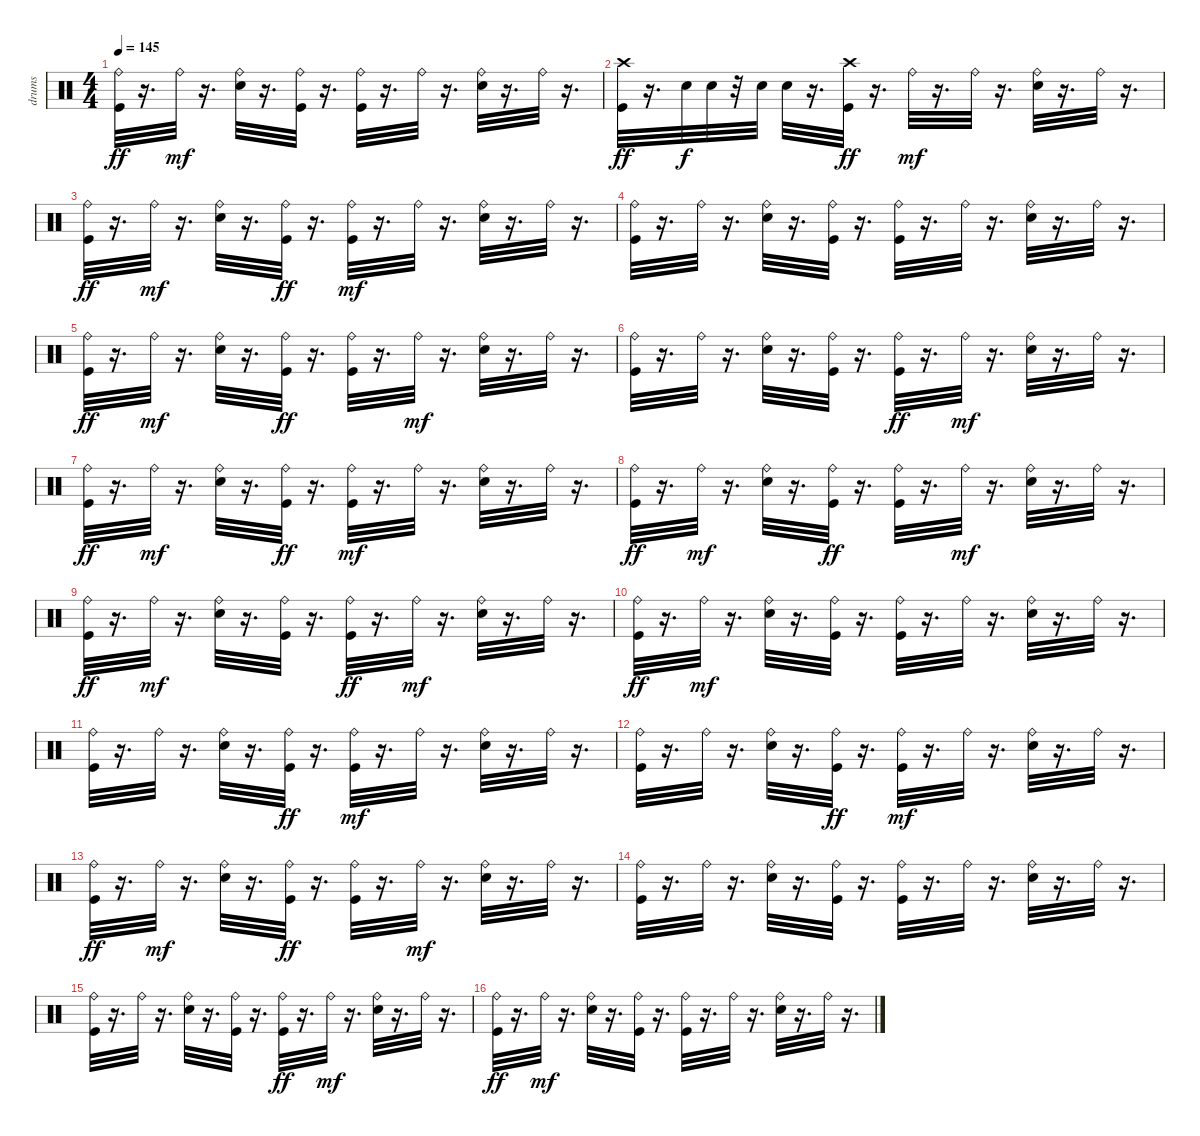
\track ("drums" "drums") {instrument percussion}
\staff {score}
\articulation defaults
\ts (4 4)
\tempo 145
\clef neutral
\ks c
("Ride (bell)" "Kick (hit)").32{dy ff} r.16{d} "Ride (bell)".32{dy mf} r.16{d} ("Snare (hit) 2" "Ride (bell)").32 r.16{d} ("Kick (hit)" "Ride (bell)").32 r.16{d} ("Kick (hit)" "Ride (bell)").32 r.16{d} "Ride (bell)".32 r.16{d} ("Snare (hit) 2" "Ride (bell)").32 r.16{d} "Ride (bell)".32 r.16{d} |
("Crash high (hit)" "Kick (hit)").32{dy ff} r.16{d} "Snare (hit) 2".32{dy f} "Snare (hit) 2".32 r.32 "Snare (hit) 2".32 "Snare (hit) 2".32 r.16{d} ("Crash high (hit)" "Kick (hit)").32{dy ff} r.16{d} "Ride (bell)".32{dy mf} r.16{d} "Ride (bell)".32 r.16{d} ("Ride (bell)" "Snare (hit) 2").32 r.16{d} "Ride (bell)".32 r.16{d} |
("Ride (bell)" "Kick (hit)").32{dy ff} r.16{d} "Ride (bell)".32{dy mf} r.16{d} ("Snare (hit) 2" "Ride (bell)").32 r.16{d} ("Ride (bell)" "Kick (hit)").32{dy ff} r.16{d} ("Kick (hit)" "Ride (bell)").32{dy mf} r.16{d} "Ride (bell)".32 r.16{d} ("Ride (bell)" "Snare (hit) 2").32 r.16{d} "Ride (bell)".32 r.16{d} |
("Kick (hit)" "Ride (bell)").32 r.16{d} "Ride (bell)".32 r.16{d} ("Snare (hit) 2" "Ride (bell)").32 r.16{d} ("Kick (hit)" "Ride (bell)").32 r.16{d} ("Kick (hit)" "Ride (bell)").32 r.16{d} "Ride (bell)".32 r.16{d} ("Ride (bell)" "Snare (hit) 2").32 r.16{d} "Ride (bell)".32 r.16{d} |
("Ride (bell)" "Kick (hit)").32{dy ff} r.16{d} "Ride (bell)".32{dy mf} r.16{d} ("Snare (hit) 2" "Ride (bell)").32 r.16{d} ("Ride (bell)" "Kick (hit)").32{dy ff} r.16{d} ("Ride (bell)" "Kick (hit)").32 r.16{d} "Ride (bell)".32{dy mf} r.16{d} ("Ride (bell)" "Snare (hit) 2").32 r.16{d} "Ride (bell)".32 r.16{d} |
("Kick (hit)" "Ride (bell)").32 r.16{d} "Ride (bell)".32 r.16{d} ("Snare (hit) 2" "Ride (bell)").32 r.16{d} ("Kick (hit)" "Ride (bell)").32 r.16{d} ("Ride (bell)" "Kick (hit)").32{dy ff} r.16{d} "Ride (bell)".32{dy mf} r.16{d} ("Snare (hit) 2" "Ride (bell)").32 r.16{d} "Ride (bell)".32 r.16{d} |
("Ride (bell)" "Kick (hit)").32{dy ff} r.16{d} "Ride (bell)".32{dy mf} r.16{d} ("Snare (hit) 2" "Ride (bell)").32 r.16{d} ("Ride (bell)" "Kick (hit)").32{dy ff} r.16{d} ("Kick (hit)" "Ride (bell)").32{dy mf} r.16{d} "Ride (bell)".32 r.16{d} ("Snare (hit) 2" "Ride (bell)").32 r.16{d} "Ride (bell)".32 r.16{d} |
("Ride (bell)" "Kick (hit)").32{dy ff} r.16{d} "Ride (bell)".32{dy mf} r.16{d} ("Snare (hit) 2" "Ride (bell)").32 r.16{d} ("Ride (bell)" "Kick (hit)").32{dy ff} r.16{d} ("Ride (bell)" "Kick (hit)").32 r.16{d} "Ride (bell)".32{dy mf} r.16{d} ("Ride (bell)" "Snare (hit) 2").32 r.16{d} "Ride (bell)".32 r.16{d} |
("Ride (bell)" "Kick (hit)").32{dy ff} r.16{d} "Ride (bell)".32{dy mf} r.16{d} ("Ride (bell)" "Snare (hit) 2").32 r.16{d} ("Kick (hit)" "Ride (bell)").32 r.16{d} ("Ride (bell)" "Kick (hit)").32{dy ff} r.16{d} "Ride (bell)".32{dy mf} r.16{d} ("Snare (hit) 2" "Ride (bell)").32 r.16{d} "Ride (bell)".32 r.16{d} |
("Ride (bell)" "Kick (hit)").32{dy ff} r.16{d} "Ride (bell)".32{dy mf} r.16{d} ("Snare (hit) 2" "Ride (bell)").32 r.16{d} ("Kick (hit)" "Ride (bell)").32 r.16{d} ("Kick (hit)" "Ride (bell)").32 r.16{d} "Ride (bell)".32 r.16{d} ("Snare (hit) 2" "Ride (bell)").32 r.16{d} "Ride (bell)".32 r.16{d} |
("Kick (hit)" "Ride (bell)").32 r.16{d} "Ride (bell)".32 r.16{d} ("Snare (hit) 2" "Ride (bell)").32 r.16{d} ("Ride (bell)" "Kick (hit)").32{dy ff} r.16{d} ("Kick (hit)" "Ride (bell)").32{dy mf} r.16{d} "Ride (bell)".32 r.16{d} ("Ride (bell)" "Snare (hit) 2").32 r.16{d} "Ride (bell)".32 r.16{d} |
("Kick (hit)" "Ride (bell)").32 r.16{d} "Ride (bell)".32 r.16{d} ("Ride (bell)" "Snare (hit) 2").32 r.16{d} ("Ride (bell)" "Kick (hit)").32{dy ff} r.16{d} ("Kick (hit)" "Ride (bell)").32{dy mf} r.16{d} "Ride (bell)".32 r.16{d} ("Snare (hit) 2" "Ride (bell)").32 r.16{d} "Ride (bell)".32 r.16{d} |
("Ride (bell)" "Kick (hit)").32{dy ff} r.16{d} "Ride (bell)".32{dy mf} r.16{d} ("Snare (hit) 2" "Ride (bell)").32 r.16{d} ("Ride (bell)" "Kick (hit)").32{dy ff} r.16{d} ("Ride (bell)" "Kick (hit)").32 r.16{d} "Ride (bell)".32{dy mf} r.16{d} ("Snare (hit) 2" "Ride (bell)").32 r.16{d} "Ride (bell)".32 r.16{d} |
("Kick (hit)" "Ride (bell)").32 r.16{d} "Ride (bell)".32 r.16{d} ("Snare (hit) 2" "Ride (bell)").32 r.16{d} ("Kick (hit)" "Ride (bell)").32 r.16{d} ("Kick (hit)" "Ride (bell)").32 r.16{d} "Ride (bell)".32 r.16{d} ("Snare (hit) 2" "Ride (bell)").32 r.16{d} "Ride (bell)".32 r.16{d} |
("Kick (hit)" "Ride (bell)").32 r.16{d} "Ride (bell)".32 r.16{d} ("Snare (hit) 2" "Ride (bell)").32 r.16{d} ("Kick (hit)" "Ride (bell)").32 r.16{d} ("Ride (bell)" "Kick (hit)").32{dy ff} r.16{d} "Ride (bell)".32{dy mf} r.16{d} ("Ride (bell)" "Snare (hit) 2").32 r.16{d} "Ride (bell)".32 r.16{d} |
("Ride (bell)" "Kick (hit)").32{dy ff} r.16{d} "Ride (bell)".32{dy mf} r.16{d} ("Ride (bell)" "Snare (hit) 2").32 r.16{d} ("Kick (hit)" "Ride (bell)").32 r.16{d} ("Kick (hit)" "Ride (bell)").32 r.16{d} "Ride (bell)".32 r.16{d} ("Ride (bell)" "Snare (hit) 2").32 r.16{d} "Ride (bell)".32 r.16{d}
